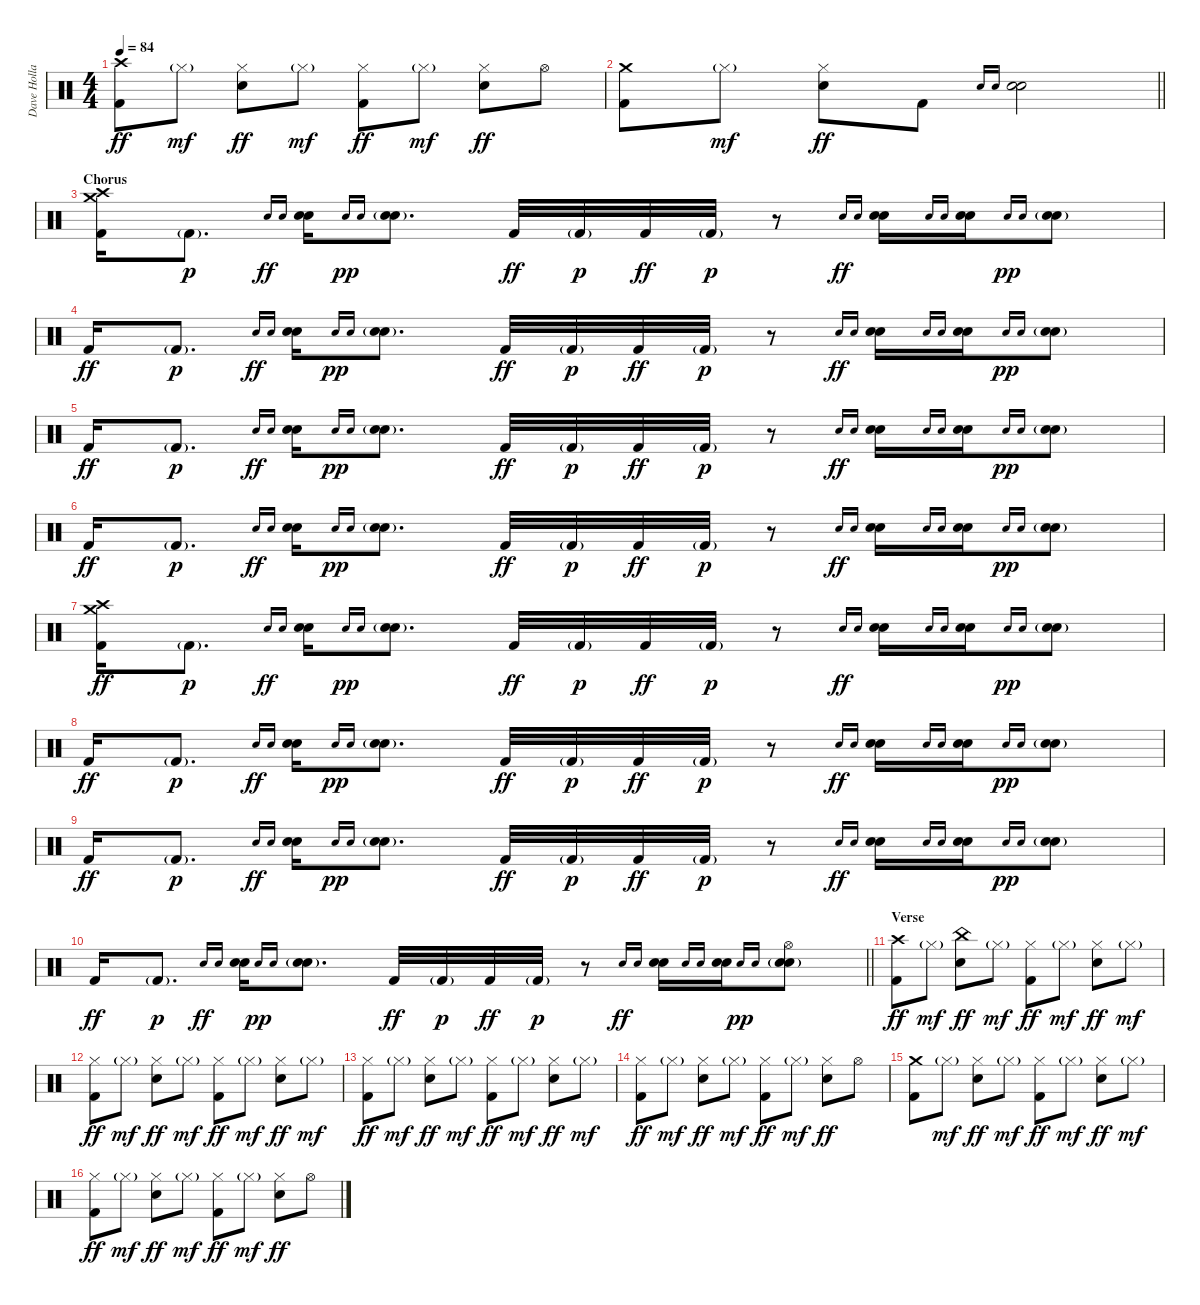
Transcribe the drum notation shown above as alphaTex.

\track ("Dave Holland" "Dave Holla") {instrument percussion}
\staff {score}
\articulation defaults
\ts (4 4)
\tempo 84
\clef neutral
\ks c
("Crash high (hit)" "Kick (hit) 2").8{dy ff} "Hi-Hat (closed)"{g}.8{dy mf} ("Hi-Hat (closed)" "Snare (hit) 2").8{dy ff} "Hi-Hat (closed)"{g}.8{dy mf} ("Hi-Hat (closed)" "Kick (hit) 2").8{dy ff} "Hi-Hat (closed)"{g}.8{dy mf} ("Hi-Hat (closed)" "Snare (hit) 2").8{dy ff} "Hi-Hat (open)".8 |
\barLineRight lightlight
("Crash medium (hit)" "Kick (hit) 2").8 "Hi-Hat (closed)"{g}.8{dy mf} ("Hi-Hat (closed)" "Snare (hit) 2").8{dy ff} "Kick (hit) 2".8 "Electric Snare (hit)".16{gr onbeat} "Snare (hit) 2".16{gr onbeat} ("Electric Snare (hit)" "Snare (hit) 2").2 |
\section ("" "Chorus")
("Crash medium (hit)" "Crash high (hit)" "Kick (hit) 2").16 "Kick (hit) 2"{g}.8{d dy p} "Electric Snare (hit)".16{gr onbeat dy ff} "Snare (hit) 2".16{gr onbeat} ("Electric Snare (hit)" "Snare (hit) 2").16 "Electric Snare (hit)".16{gr onbeat dy pp} "Snare (hit) 2".16{gr onbeat} ("Electric Snare (hit)"{g} "Snare (hit) 2"{g}).8{d} "Kick (hit) 2".32{dy ff} "Kick (hit) 2"{g}.32{dy p} "Kick (hit) 2".32{dy ff} "Kick (hit) 2"{g}.32{dy p} r.8 "Electric Snare (hit)".16{gr onbeat dy ff} "Snare (hit) 2".16{gr onbeat} ("Electric Snare (hit)" "Snare (hit) 2").16 "Electric Snare (hit)".16{gr onbeat} "Snare (hit) 2".16{gr onbeat} ("Electric Snare (hit)" "Snare (hit) 2").16 "Electric Snare (hit)".16{gr onbeat dy pp} "Snare (hit) 2".16{gr onbeat} ("Electric Snare (hit)"{g} "Snare (hit) 2"{g}).8 |
"Kick (hit) 2".16{dy ff} "Kick (hit) 2"{g}.8{d dy p} "Electric Snare (hit)".16{gr onbeat dy ff} "Snare (hit) 2".16{gr onbeat} ("Electric Snare (hit)" "Snare (hit) 2").16 "Electric Snare (hit)".16{gr onbeat dy pp} "Snare (hit) 2".16{gr onbeat} ("Electric Snare (hit)"{g} "Snare (hit) 2"{g}).8{d} "Kick (hit) 2".32{dy ff} "Kick (hit) 2"{g}.32{dy p} "Kick (hit) 2".32{dy ff} "Kick (hit) 2"{g}.32{dy p} r.8 "Electric Snare (hit)".16{gr onbeat dy ff} "Snare (hit) 2".16{gr onbeat} ("Electric Snare (hit)" "Snare (hit) 2").16 "Electric Snare (hit)".16{gr onbeat} "Snare (hit) 2".16{gr onbeat} ("Electric Snare (hit)" "Snare (hit) 2").16 "Electric Snare (hit)".16{gr onbeat dy pp} "Snare (hit) 2".16{gr onbeat} ("Electric Snare (hit)"{g} "Snare (hit) 2"{g}).8 |
"Kick (hit) 2".16{dy ff} "Kick (hit) 2"{g}.8{d dy p} "Electric Snare (hit)".16{gr onbeat dy ff} "Snare (hit) 2".16{gr onbeat} ("Electric Snare (hit)" "Snare (hit) 2").16 "Electric Snare (hit)".16{gr onbeat dy pp} "Snare (hit) 2".16{gr onbeat} ("Electric Snare (hit)"{g} "Snare (hit) 2"{g}).8{d} "Kick (hit) 2".32{dy ff} "Kick (hit) 2"{g}.32{dy p} "Kick (hit) 2".32{dy ff} "Kick (hit) 2"{g}.32{dy p} r.8 "Electric Snare (hit)".16{gr onbeat dy ff} "Snare (hit) 2".16{gr onbeat} ("Electric Snare (hit)" "Snare (hit) 2").16 "Electric Snare (hit)".16{gr onbeat} "Snare (hit) 2".16{gr onbeat} ("Electric Snare (hit)" "Snare (hit) 2").16 "Electric Snare (hit)".16{gr onbeat dy pp} "Snare (hit) 2".16{gr onbeat} ("Electric Snare (hit)"{g} "Snare (hit) 2"{g}).8 |
"Kick (hit) 2".16{dy ff} "Kick (hit) 2"{g}.8{d dy p} "Electric Snare (hit)".16{gr onbeat dy ff} "Snare (hit) 2".16{gr onbeat} ("Electric Snare (hit)" "Snare (hit) 2").16 "Electric Snare (hit)".16{gr onbeat dy pp} "Snare (hit) 2".16{gr onbeat} ("Electric Snare (hit)"{g} "Snare (hit) 2"{g}).8{d} "Kick (hit) 2".32{dy ff} "Kick (hit) 2"{g}.32{dy p} "Kick (hit) 2".32{dy ff} "Kick (hit) 2"{g}.32{dy p} r.8 "Electric Snare (hit)".16{gr onbeat dy ff} "Snare (hit) 2".16{gr onbeat} ("Electric Snare (hit)" "Snare (hit) 2").16 "Electric Snare (hit)".16{gr onbeat} "Snare (hit) 2".16{gr onbeat} ("Electric Snare (hit)" "Snare (hit) 2").16 "Electric Snare (hit)".16{gr onbeat dy pp} "Snare (hit) 2".16{gr onbeat} ("Electric Snare (hit)"{g} "Snare (hit) 2"{g}).8 |
("Crash medium (hit)" "Crash high (hit)" "Kick (hit) 2").16{dy ff} "Kick (hit) 2"{g}.8{d dy p} "Electric Snare (hit)".16{gr onbeat dy ff} "Snare (hit) 2".16{gr onbeat} ("Electric Snare (hit)" "Snare (hit) 2").16 "Electric Snare (hit)".16{gr onbeat dy pp} "Snare (hit) 2".16{gr onbeat} ("Electric Snare (hit)"{g} "Snare (hit) 2"{g}).8{d} "Kick (hit) 2".32{dy ff} "Kick (hit) 2"{g}.32{dy p} "Kick (hit) 2".32{dy ff} "Kick (hit) 2"{g}.32{dy p} r.8 "Electric Snare (hit)".16{gr onbeat dy ff} "Snare (hit) 2".16{gr onbeat} ("Electric Snare (hit)" "Snare (hit) 2").16 "Electric Snare (hit)".16{gr onbeat} "Snare (hit) 2".16{gr onbeat} ("Electric Snare (hit)" "Snare (hit) 2").16 "Electric Snare (hit)".16{gr onbeat dy pp} "Snare (hit) 2".16{gr onbeat} ("Electric Snare (hit)"{g} "Snare (hit) 2"{g}).8 |
"Kick (hit) 2".16{dy ff} "Kick (hit) 2"{g}.8{d dy p} "Electric Snare (hit)".16{gr onbeat dy ff} "Snare (hit) 2".16{gr onbeat} ("Electric Snare (hit)" "Snare (hit) 2").16 "Electric Snare (hit)".16{gr onbeat dy pp} "Snare (hit) 2".16{gr onbeat} ("Electric Snare (hit)"{g} "Snare (hit) 2"{g}).8{d} "Kick (hit) 2".32{dy ff} "Kick (hit) 2"{g}.32{dy p} "Kick (hit) 2".32{dy ff} "Kick (hit) 2"{g}.32{dy p} r.8 "Electric Snare (hit)".16{gr onbeat dy ff} "Snare (hit) 2".16{gr onbeat} ("Electric Snare (hit)" "Snare (hit) 2").16 "Electric Snare (hit)".16{gr onbeat} "Snare (hit) 2".16{gr onbeat} ("Electric Snare (hit)" "Snare (hit) 2").16 "Electric Snare (hit)".16{gr onbeat dy pp} "Snare (hit) 2".16{gr onbeat} ("Electric Snare (hit)"{g} "Snare (hit) 2"{g}).8 |
"Kick (hit) 2".16{dy ff} "Kick (hit) 2"{g}.8{d dy p} "Electric Snare (hit)".16{gr onbeat dy ff} "Snare (hit) 2".16{gr onbeat} ("Electric Snare (hit)" "Snare (hit) 2").16 "Electric Snare (hit)".16{gr onbeat dy pp} "Snare (hit) 2".16{gr onbeat} ("Electric Snare (hit)"{g} "Snare (hit) 2"{g}).8{d} "Kick (hit) 2".32{dy ff} "Kick (hit) 2"{g}.32{dy p} "Kick (hit) 2".32{dy ff} "Kick (hit) 2"{g}.32{dy p} r.8 "Electric Snare (hit)".16{gr onbeat dy ff} "Snare (hit) 2".16{gr onbeat} ("Electric Snare (hit)" "Snare (hit) 2").16 "Electric Snare (hit)".16{gr onbeat} "Snare (hit) 2".16{gr onbeat} ("Electric Snare (hit)" "Snare (hit) 2").16 "Electric Snare (hit)".16{gr onbeat dy pp} "Snare (hit) 2".16{gr onbeat} ("Electric Snare (hit)"{g} "Snare (hit) 2"{g}).8 |
\barLineRight lightlight "Kick (hit) 2".16{dy ff} "Kick (hit) 2"{g}.8{d dy p} "Electric Snare (hit)".16{gr onbeat dy ff} "Snare (hit) 2".16{gr onbeat}
("Electric Snare (hit)" "Snare (hit) 2").16 "Electric Snare (hit)".16{gr onbeat dy pp} "Snare (hit) 2".16{gr onbeat} ("Electric Snare (hit)"{g} "Snare (hit) 2"{g}).8{d} "Kick (hit) 2".32{dy ff} "Kick (hit) 2"{g}.32{dy p} "Kick (hit) 2".32{dy ff} "Kick (hit) 2"{g}.32{dy p} r.8 "Electric Snare (hit)".16{gr onbeat dy ff} "Snare (hit) 2".16{gr onbeat} ("Electric Snare (hit)" "Snare (hit) 2").16 "Electric Snare (hit)".16{gr onbeat} "Snare (hit) 2".16{gr onbeat} ("Electric Snare (hit)" "Snare (hit) 2").16 "Electric Snare (hit)".16{gr onbeat dy pp} "Snare (hit) 2".16{gr onbeat} ("Hi-Hat (open)" "Electric Snare (hit)"{g} "Snare (hit) 2"{g}).8 |
\section ("" "Verse")
("Crash high (hit)" "Kick (hit) 2").8{dy ff} "Hi-Hat (closed)"{g}.8{dy mf} ("China (hit)" "Snare (hit) 2").8{dy ff} "Hi-Hat (closed)"{g}.8{dy mf} ("Hi-Hat (closed)" "Kick (hit) 2").8{dy ff} "Hi-Hat (closed)"{g}.8{dy mf} ("Hi-Hat (closed)" "Snare (hit) 2").8{dy ff} "Hi-Hat (closed)"{g}.8{dy mf} |
("Hi-Hat (closed)" "Kick (hit) 2").8{dy ff} "Hi-Hat (closed)"{g}.8{dy mf} ("Hi-Hat (closed)" "Snare (hit) 2").8{dy ff} "Hi-Hat (closed)"{g}.8{dy mf} ("Hi-Hat (closed)" "Kick (hit) 2").8{dy ff} "Hi-Hat (closed)"{g}.8{dy mf} ("Hi-Hat (closed)" "Snare (hit) 2").8{dy ff} "Hi-Hat (closed)"{g}.8{dy mf} |
("Hi-Hat (closed)" "Kick (hit) 2").8{dy ff} "Hi-Hat (closed)"{g}.8{dy mf} ("Hi-Hat (closed)" "Snare (hit) 2").8{dy ff} "Hi-Hat (closed)"{g}.8{dy mf} ("Hi-Hat (closed)" "Kick (hit) 2").8{dy ff} "Hi-Hat (closed)"{g}.8{dy mf} ("Hi-Hat (closed)" "Snare (hit) 2").8{dy ff} "Hi-Hat (closed)"{g}.8{dy mf} |
("Hi-Hat (closed)" "Kick (hit) 2").8{dy ff} "Hi-Hat (closed)"{g}.8{dy mf} ("Hi-Hat (closed)" "Snare (hit) 2").8{dy ff} "Hi-Hat (closed)"{g}.8{dy mf} ("Hi-Hat (closed)" "Kick (hit) 2").8{dy ff} "Hi-Hat (closed)"{g}.8{dy mf} ("Hi-Hat (closed)" "Snare (hit) 2").8{dy ff} "Hi-Hat (open)".8 |
("Crash medium (hit)" "Kick (hit) 2").8 "Hi-Hat (closed)"{g}.8{dy mf} ("Hi-Hat (closed)" "Snare (hit) 2").8{dy ff} "Hi-Hat (closed)"{g}.8{dy mf} ("Hi-Hat (closed)" "Kick (hit) 2").8{dy ff} "Hi-Hat (closed)"{g}.8{dy mf} ("Hi-Hat (closed)" "Snare (hit) 2").8{dy ff} "Hi-Hat (closed)"{g}.8{dy mf} |
("Hi-Hat (closed)" "Kick (hit) 2").8{dy ff} "Hi-Hat (closed)"{g}.8{dy mf} ("Hi-Hat (closed)" "Snare (hit) 2").8{dy ff} "Hi-Hat (closed)"{g}.8{dy mf} ("Hi-Hat (closed)" "Kick (hit) 2").8{dy ff} "Hi-Hat (closed)"{g}.8{dy mf} ("Hi-Hat (closed)" "Snare (hit) 2").8{dy ff} "Hi-Hat (open)".8
